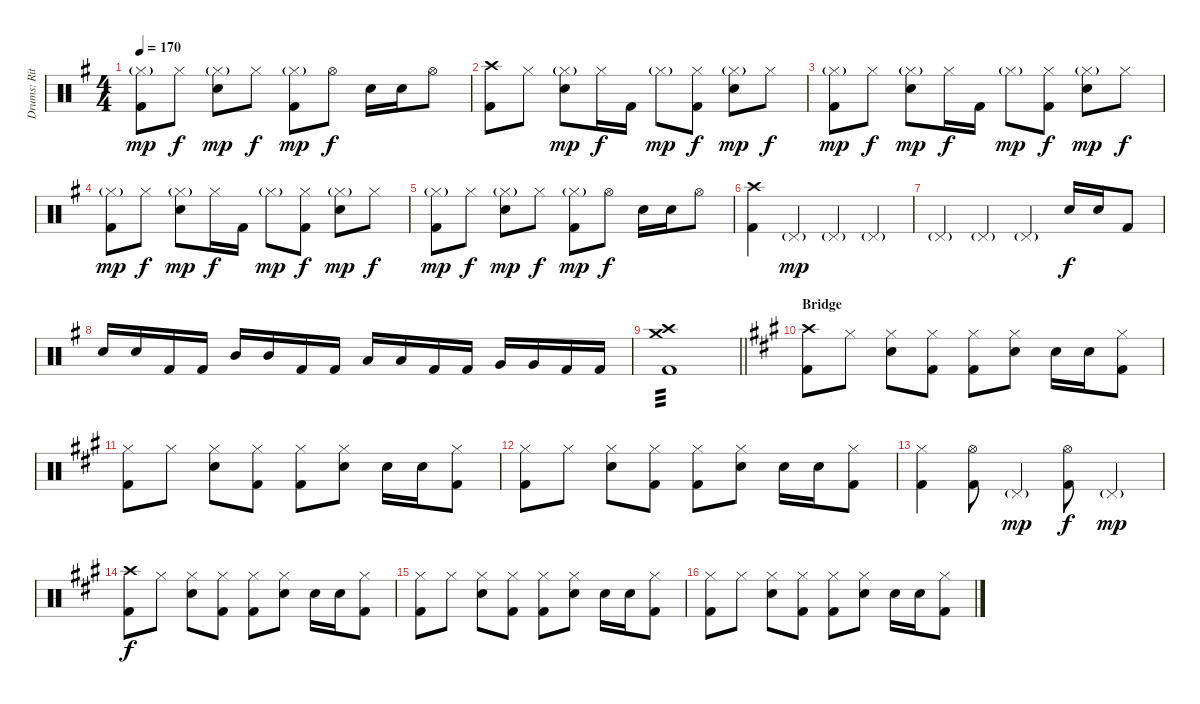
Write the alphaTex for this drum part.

\track ("Drums: Ritsu Tainaka" "Drums: Rit") {instrument percussion}
\staff {score}
\articulation defaults
\ts (4 4)
\tempo 170
\clef neutral
\ks g
("Hi-Hat (closed)"{g} "Kick (hit) 2").8{dy mp} "Hi-Hat (closed)".8{dy f} ("Hi-Hat (closed)"{g} "Electric Snare (hit)").8{dy mp} "Hi-Hat (closed)".8{dy f} ("Hi-Hat (closed)"{g} "Kick (hit) 2").8{dy mp} "Hi-Hat (open)".8{dy f} "Electric Snare (hit)".16 "Electric Snare (hit)".16 "Hi-Hat (open)".8 |
("Crash high (hit)" "Kick (hit) 2").8 "Hi-Hat (closed)".8 ("Hi-Hat (closed)"{g} "Electric Snare (hit)").8{dy mp} "Hi-Hat (closed)".16{dy f} "Kick (hit) 2".16 "Hi-Hat (closed)"{g}.8{dy mp} ("Hi-Hat (closed)" "Kick (hit) 2").8{dy f} ("Hi-Hat (closed)"{g} "Electric Snare (hit)").8{dy mp} "Hi-Hat (closed)".8{dy f} |
("Hi-Hat (closed)"{g} "Kick (hit) 2").8{dy mp} "Hi-Hat (closed)".8{dy f} ("Hi-Hat (closed)"{g} "Electric Snare (hit)").8{dy mp} "Hi-Hat (closed)".16{dy f} "Kick (hit) 2".16 "Hi-Hat (closed)"{g}.8{dy mp} ("Hi-Hat (closed)" "Kick (hit) 2").8{dy f} ("Hi-Hat (closed)"{g} "Electric Snare (hit)").8{dy mp} "Hi-Hat (closed)".8{dy f} |
("Hi-Hat (closed)"{g} "Kick (hit) 2").8{dy mp} "Hi-Hat (closed)".8{dy f} ("Hi-Hat (closed)"{g} "Electric Snare (hit)").8{dy mp} "Hi-Hat (closed)".16{dy f} "Kick (hit) 2".16 "Hi-Hat (closed)"{g}.8{dy mp} ("Hi-Hat (closed)" "Kick (hit) 2").8{dy f} ("Hi-Hat (closed)"{g} "Electric Snare (hit)").8{dy mp} "Hi-Hat (closed)".8{dy f} |
("Hi-Hat (closed)"{g} "Kick (hit) 2").8{dy mp} "Hi-Hat (closed)".8{dy f} ("Hi-Hat (closed)"{g} "Electric Snare (hit)").8{dy mp} "Hi-Hat (closed)".8{dy f} ("Hi-Hat (closed)"{g} "Kick (hit) 2").8{dy mp} "Hi-Hat (open)".8{dy f} "Electric Snare (hit)".16 "Electric Snare (hit)".16 "Hi-Hat (open)".8 |
("Crash high (hit)" "Kick (hit) 2").4 "Pedal Hi-Hat (hit)"{g}.4{dy mp} "Pedal Hi-Hat (hit)"{g}.4 "Pedal Hi-Hat (hit)"{g}.4 |
"Pedal Hi-Hat (hit)"{g}.4 "Pedal Hi-Hat (hit)"{g}.4 "Pedal Hi-Hat (hit)"{g}.4 "Electric Snare (hit)".16{dy f} "Electric Snare (hit)".16 "Kick (hit) 2".8 |
"Electric Snare (hit)".16 "Electric Snare (hit)".16 "Kick (hit) 2".16 "Kick (hit) 2".16 "Mid Tom (hit)".16 "Mid Tom (hit)".16 "Kick (hit) 2".16 "Kick (hit) 2".16 "Low Tom (hit)".16 "Low Tom (hit)".16 "Kick (hit) 2".16 "Kick (hit) 2".16 "Very Low Tom (hit)".16 "Very Low Tom (hit)".16 "Kick (hit) 2".16 "Kick (hit) 2".16 |
\barLineRight lightlight
("Crash high (hit)" "Crash medium (hit)" "Kick (hit) 2").1{tp 3} |
\section ("" "Bridge")
\ks a
("Crash high (hit)" "Kick (hit) 2").8 "Hi-Hat (closed)".8 ("Hi-Hat (closed)" "Electric Snare (hit)").8 ("Hi-Hat (closed)" "Kick (hit) 2").8 ("Hi-Hat (closed)" "Kick (hit) 2").8 ("Hi-Hat (closed)" "Electric Snare (hit)").8 "Electric Snare (hit)".16 "Electric Snare (hit)".16 ("Hi-Hat (closed)" "Kick (hit) 2").8 |
("Hi-Hat (closed)" "Kick (hit) 2").8 "Hi-Hat (closed)".8 ("Hi-Hat (closed)" "Electric Snare (hit)").8 ("Hi-Hat (closed)" "Kick (hit) 2").8 ("Hi-Hat (closed)" "Kick (hit) 2").8 ("Hi-Hat (closed)" "Electric Snare (hit)").8 "Electric Snare (hit)".16 "Electric Snare (hit)".16 ("Hi-Hat (closed)" "Kick (hit) 2").8 |
("Hi-Hat (closed)" "Kick (hit) 2").8 "Hi-Hat (closed)".8 ("Hi-Hat (closed)" "Electric Snare (hit)").8 ("Hi-Hat (closed)" "Kick (hit) 2").8 ("Hi-Hat (closed)" "Kick (hit) 2").8 ("Hi-Hat (closed)" "Electric Snare (hit)").8 "Electric Snare (hit)".16 "Electric Snare (hit)".16 ("Hi-Hat (closed)" "Kick (hit) 2").8 |
("Hi-Hat (closed)" "Kick (hit) 2").4 ("Hi-Hat (open)" "Kick (hit) 2").8 "Pedal Hi-Hat (hit)"{g}.4{dy mp} ("Hi-Hat (open)" "Kick (hit) 2").8{dy f} "Pedal Hi-Hat (hit)"{g}.4{dy mp} |
("Crash high (hit)" "Kick (hit) 2").8{dy f} "Hi-Hat (closed)".8 ("Hi-Hat (closed)" "Electric Snare (hit)").8 ("Hi-Hat (closed)" "Kick (hit) 2").8 ("Hi-Hat (closed)" "Kick (hit) 2").8 ("Hi-Hat (closed)" "Electric Snare (hit)").8 "Electric Snare (hit)".16 "Electric Snare (hit)".16 ("Hi-Hat (closed)" "Kick (hit) 2").8 |
("Hi-Hat (closed)" "Kick (hit) 2").8 "Hi-Hat (closed)".8 ("Hi-Hat (closed)" "Electric Snare (hit)").8 ("Hi-Hat (closed)" "Kick (hit) 2").8 ("Hi-Hat (closed)" "Kick (hit) 2").8 ("Hi-Hat (closed)" "Electric Snare (hit)").8 "Electric Snare (hit)".16 "Electric Snare (hit)".16 ("Hi-Hat (closed)" "Kick (hit) 2").8 |
("Hi-Hat (closed)" "Kick (hit) 2").8 "Hi-Hat (closed)".8 ("Hi-Hat (closed)" "Electric Snare (hit)").8 ("Hi-Hat (closed)" "Kick (hit) 2").8 ("Hi-Hat (closed)" "Kick (hit) 2").8 ("Hi-Hat (closed)" "Electric Snare (hit)").8 "Electric Snare (hit)".16 "Electric Snare (hit)".16 ("Hi-Hat (closed)" "Kick (hit) 2").8
